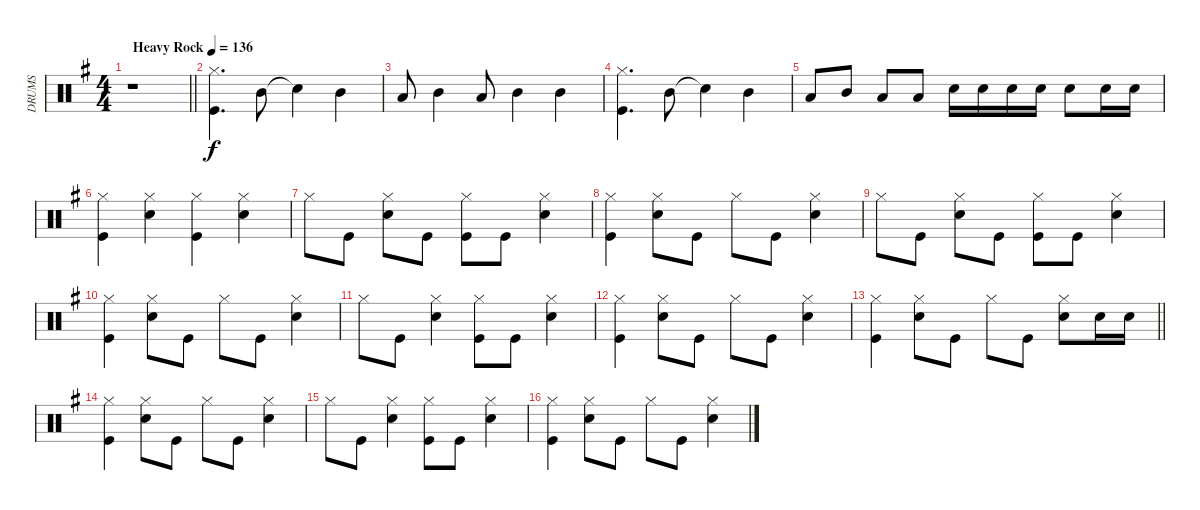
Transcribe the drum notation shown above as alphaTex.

\track ("DRUMS" "DRUMS") {instrument percussion}
\staff {score}
\articulation defaults
\ts (4 4)
\tempo (136 "Heavy Rock")
\clef neutral
\barLineRight lightlight
\ks eminor
r.1{dy f} |
("Hi-Hat (closed)" "Kick (hit)").4{d} "Mid Tom (hit)".8 "Snare (hit)"{t}.4 "Mid Tom (hit)".4 |
"Low Tom (hit)".8 "Mid Tom (hit)".4 "Low Tom (hit)".8 "Mid Tom (hit)".4 "Mid Tom (hit)".4 |
("Hi-Hat (closed)" "Kick (hit)").4{d} "Mid Tom (hit)".8 "Snare (hit)"{t}.4 "Mid Tom (hit)".4 |
"Low Tom (hit)".8 "Mid Tom (hit)".8 "Low Tom (hit)".8 "Low Tom (hit)".8 "Snare (hit) 2".16 "Snare (hit) 2".16 "Snare (hit) 2".16 "Snare (hit) 2".16 "Snare (hit) 2".8 "Snare (hit) 2".16 "Snare (hit) 2".16 |
("Hi-Hat (closed)" "Kick (hit)").4 ("Hi-Hat (closed)" "Snare (hit) 2").4 ("Hi-Hat (closed)" "Kick (hit)").4 ("Hi-Hat (closed)" "Snare (hit) 2").4 |
"Hi-Hat (closed)".8 "Kick (hit)".8 ("Hi-Hat (closed)" "Snare (hit) 2").8 "Kick (hit)".8 ("Hi-Hat (closed)" "Kick (hit)").8 "Kick (hit)".8 ("Hi-Hat (closed)" "Snare (hit) 2").4 |
("Hi-Hat (closed)" "Kick (hit)").4 ("Hi-Hat (closed)" "Snare (hit) 2").8 "Kick (hit)".8 "Hi-Hat (closed)".8 "Kick (hit)".8 ("Hi-Hat (closed)" "Snare (hit) 2").4 |
"Hi-Hat (closed)".8 "Kick (hit)".8 ("Hi-Hat (closed)" "Snare (hit) 2").8 "Kick (hit)".8 ("Hi-Hat (closed)" "Kick (hit)").8 "Kick (hit)".8 ("Hi-Hat (closed)" "Snare (hit) 2").4 |
("Hi-Hat (closed)" "Kick (hit)").4 ("Hi-Hat (closed)" "Snare (hit) 2").8 "Kick (hit)".8 "Hi-Hat (closed)".8 "Kick (hit)".8 ("Hi-Hat (closed)" "Snare (hit) 2").4 |
"Hi-Hat (closed)".8 "Kick (hit)".8 ("Hi-Hat (closed)" "Snare (hit) 2").4 ("Hi-Hat (closed)" "Kick (hit)").8 "Kick (hit)".8 ("Hi-Hat (closed)" "Snare (hit) 2").4 |
("Hi-Hat (closed)" "Kick (hit)").4 ("Hi-Hat (closed)" "Snare (hit) 2").8 "Kick (hit)".8 "Hi-Hat (closed)".8 "Kick (hit)".8 ("Hi-Hat (closed)" "Snare (hit) 2").4 |
\barLineRight lightlight
("Hi-Hat (closed)" "Kick (hit)").4 ("Hi-Hat (closed)" "Snare (hit) 2").8 "Kick (hit)".8 "Hi-Hat (closed)".8 "Kick (hit)".8 ("Hi-Hat (closed)" "Snare (hit) 2").8 "Snare (hit) 2".16 "Snare (hit) 2".16 |
("Hi-Hat (closed)" "Kick (hit)").4 ("Hi-Hat (closed)" "Snare (hit) 2").8 "Kick (hit)".8 "Hi-Hat (closed)".8 "Kick (hit)".8 ("Hi-Hat (closed)" "Snare (hit) 2").4 |
"Hi-Hat (closed)".8 "Kick (hit)".8 ("Hi-Hat (closed)" "Snare (hit) 2").4 ("Hi-Hat (closed)" "Kick (hit)").8 "Kick (hit)".8 ("Hi-Hat (closed)" "Snare (hit) 2").4 |
("Hi-Hat (closed)" "Kick (hit)").4 ("Hi-Hat (closed)" "Snare (hit) 2").8 "Kick (hit)".8 "Hi-Hat (closed)".8 "Kick (hit)".8 ("Hi-Hat (closed)" "Snare (hit) 2").4
